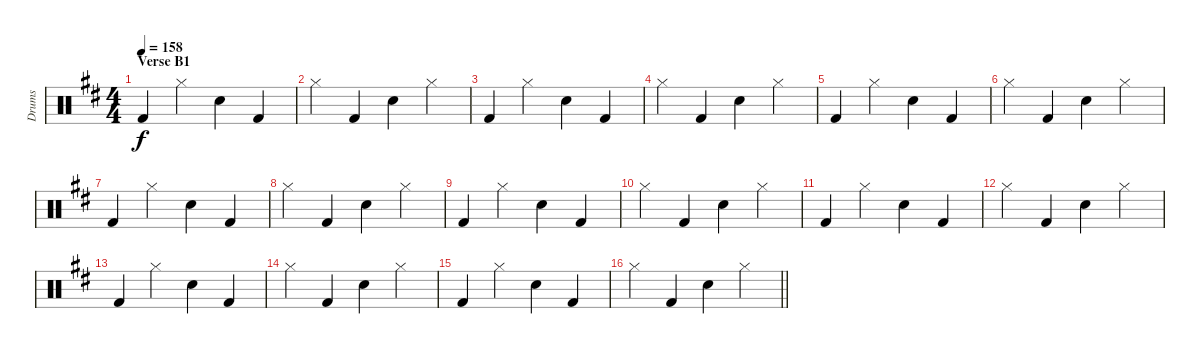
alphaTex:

\track ("Drums" "Drums") {instrument percussion}
\staff {score}
\articulation defaults
\ts (4 4)
\section ("" "Verse B1")
\tempo 158
\clef neutral
\ks d "Kick (hit) 2".4{dy f} "Hi-Hat (closed)".4 "Snare (hit) 2".4 "Kick (hit) 2".4
|
"Hi-Hat (closed)".4 "Kick (hit) 2".4 "Snare (hit) 2".4 "Hi-Hat (closed)".4 |
"Kick (hit) 2".4 "Hi-Hat (closed)".4 "Snare (hit) 2".4 "Kick (hit) 2".4 |
"Hi-Hat (closed)".4 "Kick (hit) 2".4 "Snare (hit) 2".4 "Hi-Hat (closed)".4 |
"Kick (hit) 2".4 "Hi-Hat (closed)".4 "Snare (hit) 2".4 "Kick (hit) 2".4 |
"Hi-Hat (closed)".4 "Kick (hit) 2".4 "Snare (hit) 2".4 "Hi-Hat (closed)".4 |
"Kick (hit) 2".4 "Hi-Hat (closed)".4 "Snare (hit) 2".4 "Kick (hit) 2".4 |
"Hi-Hat (closed)".4 "Kick (hit) 2".4 "Snare (hit) 2".4 "Hi-Hat (closed)".4 |
"Kick (hit) 2".4 "Hi-Hat (closed)".4 "Snare (hit) 2".4 "Kick (hit) 2".4 |
"Hi-Hat (closed)".4 "Kick (hit) 2".4 "Snare (hit) 2".4 "Hi-Hat (closed)".4 |
"Kick (hit) 2".4 "Hi-Hat (closed)".4 "Snare (hit) 2".4 "Kick (hit) 2".4 |
"Hi-Hat (closed)".4 "Kick (hit) 2".4 "Snare (hit) 2".4 "Hi-Hat (closed)".4 |
"Kick (hit) 2".4 "Hi-Hat (closed)".4 "Snare (hit) 2".4 "Kick (hit) 2".4 |
"Hi-Hat (closed)".4 "Kick (hit) 2".4 "Snare (hit) 2".4 "Hi-Hat (closed)".4 |
"Kick (hit) 2".4 "Hi-Hat (closed)".4 "Snare (hit) 2".4 "Kick (hit) 2".4 |
\barLineRight lightlight "Hi-Hat (closed)".4 "Kick (hit) 2".4 "Snare (hit) 2".4 "Hi-Hat (closed)".4
